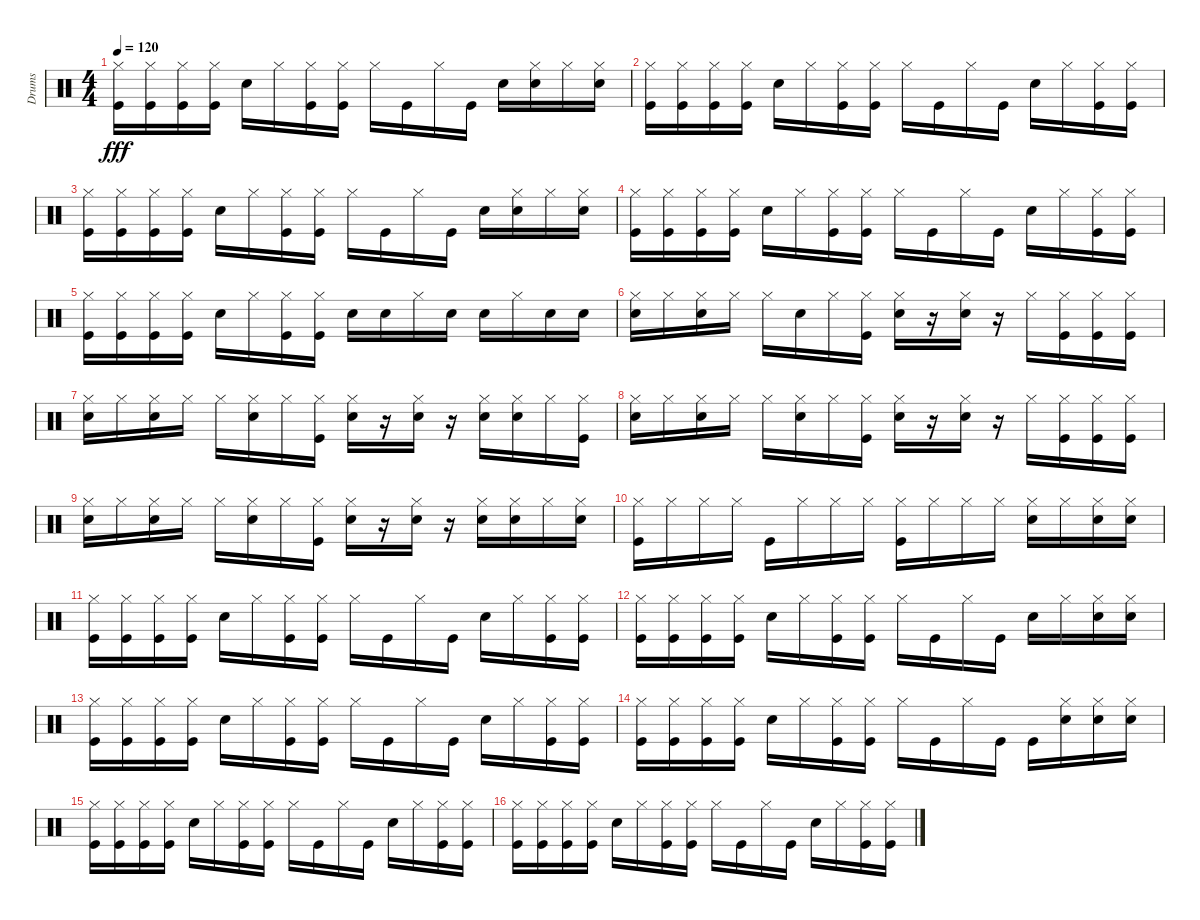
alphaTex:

\track ("Drums" "Drums") {instrument percussion}
\staff {score}
\articulation defaults
\ts (4 4)
\tempo 120
\clef neutral
\ks c
("Kick (hit)" "Hi-Hat (closed)").16{dy fff} ("Kick (hit)" "Hi-Hat (closed)").16 ("Kick (hit)" "Hi-Hat (closed)").16 ("Kick (hit)" "Hi-Hat (closed)").16 "Snare (hit) 2".16 "Hi-Hat (closed)".16 ("Kick (hit)" "Hi-Hat (closed)").16 ("Kick (hit)" "Hi-Hat (closed)").16 "Hi-Hat (closed)".16 "Kick (hit)".16 "Hi-Hat (closed)".16 "Kick (hit)".16 "Snare (hit) 2".16 ("Snare (hit) 2" "Hi-Hat (closed)").16 "Hi-Hat (closed)".16 ("Snare (hit) 2" "Hi-Hat (closed)").16 |
("Kick (hit)" "Hi-Hat (closed)").16 ("Kick (hit)" "Hi-Hat (closed)").16 ("Kick (hit)" "Hi-Hat (closed)").16 ("Kick (hit)" "Hi-Hat (closed)").16 "Snare (hit) 2".16 "Hi-Hat (closed)".16 ("Kick (hit)" "Hi-Hat (closed)").16 ("Kick (hit)" "Hi-Hat (closed)").16 "Hi-Hat (closed)".16 "Kick (hit)".16 "Hi-Hat (closed)".16 "Kick (hit)".16 "Snare (hit) 2".16 "Hi-Hat (closed)".16 ("Kick (hit)" "Hi-Hat (closed)").16 ("Kick (hit)" "Hi-Hat (closed)").16 |
("Kick (hit)" "Hi-Hat (closed)").16 ("Kick (hit)" "Hi-Hat (closed)").16 ("Kick (hit)" "Hi-Hat (closed)").16 ("Kick (hit)" "Hi-Hat (closed)").16 "Snare (hit) 2".16 "Hi-Hat (closed)".16 ("Kick (hit)" "Hi-Hat (closed)").16 ("Kick (hit)" "Hi-Hat (closed)").16 "Hi-Hat (closed)".16 "Kick (hit)".16 "Hi-Hat (closed)".16 "Kick (hit)".16 "Snare (hit) 2".16 ("Snare (hit) 2" "Hi-Hat (closed)").16 "Hi-Hat (closed)".16 ("Snare (hit) 2" "Hi-Hat (closed)").16 |
("Kick (hit)" "Hi-Hat (closed)").16 ("Kick (hit)" "Hi-Hat (closed)").16 ("Kick (hit)" "Hi-Hat (closed)").16 ("Kick (hit)" "Hi-Hat (closed)").16 "Snare (hit) 2".16 "Hi-Hat (closed)".16 ("Kick (hit)" "Hi-Hat (closed)").16 ("Kick (hit)" "Hi-Hat (closed)").16 "Hi-Hat (closed)".16 "Kick (hit)".16 "Hi-Hat (closed)".16 "Kick (hit)".16 "Snare (hit) 2".16 "Hi-Hat (closed)".16 ("Kick (hit)" "Hi-Hat (closed)").16 ("Kick (hit)" "Hi-Hat (closed)").16 |
("Kick (hit)" "Hi-Hat (closed)").16 ("Kick (hit)" "Hi-Hat (closed)").16 ("Kick (hit)" "Hi-Hat (closed)").16 ("Kick (hit)" "Hi-Hat (closed)").16 "Snare (hit) 2".16 "Hi-Hat (closed)".16 ("Kick (hit)" "Hi-Hat (closed)").16 ("Kick (hit)" "Hi-Hat (closed)").16 "Snare (hit) 2".16 "Snare (hit) 2".16 "Hi-Hat (closed)".16 "Snare (hit) 2".16 "Snare (hit) 2".16 "Hi-Hat (closed)".16 "Snare (hit) 2".16 "Snare (hit) 2".16 |
("Snare (hit) 2" "Hi-Hat (closed)").16 "Hi-Hat (closed)".16 ("Snare (hit) 2" "Hi-Hat (closed)").16 "Hi-Hat (closed)".16 "Hi-Hat (closed)".16 "Snare (hit) 2".16 "Hi-Hat (closed)".16 ("Kick (hit)" "Hi-Hat (closed)").16 ("Snare (hit) 2" "Hi-Hat (closed)").16 r.16 ("Snare (hit) 2" "Hi-Hat (closed)").16 r.16 "Hi-Hat (closed)".16 ("Kick (hit)" "Hi-Hat (closed)").16 ("Kick (hit)" "Hi-Hat (closed)").16 ("Kick (hit)" "Hi-Hat (closed)").16 |
("Snare (hit) 2" "Hi-Hat (closed)").16 "Hi-Hat (closed)".16 ("Snare (hit) 2" "Hi-Hat (closed)").16 "Hi-Hat (closed)".16 "Hi-Hat (closed)".16 ("Snare (hit) 2" "Hi-Hat (closed)").16 "Hi-Hat (closed)".16 ("Kick (hit)" "Hi-Hat (closed)").16 ("Snare (hit) 2" "Hi-Hat (closed)").16 r.16 ("Snare (hit) 2" "Hi-Hat (closed)").16 r.16 ("Snare (hit) 2" "Hi-Hat (closed)").16 ("Snare (hit) 2" "Hi-Hat (closed)").16 "Hi-Hat (closed)".16 ("Kick (hit)" "Hi-Hat (closed)").16 |
("Snare (hit) 2" "Hi-Hat (closed)").16 "Hi-Hat (closed)".16 ("Snare (hit) 2" "Hi-Hat (closed)").16 "Hi-Hat (closed)".16 "Hi-Hat (closed)".16 ("Snare (hit) 2" "Hi-Hat (closed)").16 "Hi-Hat (closed)".16 ("Kick (hit)" "Hi-Hat (closed)").16 ("Snare (hit) 2" "Hi-Hat (closed)").16 r.16 ("Snare (hit) 2" "Hi-Hat (closed)").16 r.16 "Hi-Hat (closed)".16 ("Kick (hit)" "Hi-Hat (closed)").16 ("Kick (hit)" "Hi-Hat (closed)").16 ("Kick (hit)" "Hi-Hat (closed)").16 |
("Snare (hit) 2" "Hi-Hat (closed)").16 "Hi-Hat (closed)".16 ("Snare (hit) 2" "Hi-Hat (closed)").16 "Hi-Hat (closed)".16 "Hi-Hat (closed)".16 ("Snare (hit) 2" "Hi-Hat (closed)").16 "Hi-Hat (closed)".16 ("Kick (hit)" "Hi-Hat (closed)").16 ("Snare (hit) 2" "Hi-Hat (closed)").16 r.16 ("Snare (hit) 2" "Hi-Hat (closed)").16 r.16 ("Snare (hit) 2" "Hi-Hat (closed)").16 ("Snare (hit) 2" "Hi-Hat (closed)").16 "Hi-Hat (closed)".16 ("Snare (hit) 2" "Hi-Hat (closed)").16 |
("Kick (hit)" "Hi-Hat (closed)").16 "Hi-Hat (closed)".16 "Hi-Hat (closed)".16 "Hi-Hat (closed)".16 "Kick (hit)".16 "Hi-Hat (closed)".16 "Hi-Hat (closed)".16 "Hi-Hat (closed)".16 ("Kick (hit)" "Hi-Hat (closed)").16 "Hi-Hat (closed)".16 "Hi-Hat (closed)".16 "Hi-Hat (closed)".16 ("Snare (hit) 2" "Hi-Hat (closed)").16 "Hi-Hat (closed)".16 ("Snare (hit) 2" "Hi-Hat (closed)").16 ("Snare (hit) 2" "Hi-Hat (closed)").16 |
("Kick (hit)" "Hi-Hat (closed)").16 ("Kick (hit)" "Hi-Hat (closed)").16 ("Kick (hit)" "Hi-Hat (closed)").16 ("Kick (hit)" "Hi-Hat (closed)").16 "Snare (hit) 2".16 "Hi-Hat (closed)".16 ("Kick (hit)" "Hi-Hat (closed)").16 ("Kick (hit)" "Hi-Hat (closed)").16 "Hi-Hat (closed)".16 "Kick (hit)".16 "Hi-Hat (closed)".16 "Kick (hit)".16 "Snare (hit) 2".16 "Hi-Hat (closed)".16 ("Kick (hit)" "Hi-Hat (closed)").16 ("Kick (hit)" "Hi-Hat (closed)").16 |
("Kick (hit)" "Hi-Hat (closed)").16 ("Kick (hit)" "Hi-Hat (closed)").16 ("Kick (hit)" "Hi-Hat (closed)").16 ("Kick (hit)" "Hi-Hat (closed)").16 "Snare (hit) 2".16 "Hi-Hat (closed)".16 ("Kick (hit)" "Hi-Hat (closed)").16 ("Kick (hit)" "Hi-Hat (closed)").16 "Hi-Hat (closed)".16 "Kick (hit)".16 "Hi-Hat (closed)".16 "Kick (hit)".16 "Snare (hit) 2".16 "Hi-Hat (closed)".16 ("Snare (hit) 2" "Hi-Hat (closed)").16 ("Snare (hit) 2" "Hi-Hat (closed)").16 |
("Kick (hit)" "Hi-Hat (closed)").16 ("Kick (hit)" "Hi-Hat (closed)").16 ("Kick (hit)" "Hi-Hat (closed)").16 ("Kick (hit)" "Hi-Hat (closed)").16 "Snare (hit) 2".16 "Hi-Hat (closed)".16 ("Kick (hit)" "Hi-Hat (closed)").16 ("Kick (hit)" "Hi-Hat (closed)").16 "Hi-Hat (closed)".16 "Kick (hit)".16 "Hi-Hat (closed)".16 "Kick (hit)".16 "Snare (hit) 2".16 "Hi-Hat (closed)".16 ("Kick (hit)" "Hi-Hat (closed)").16 ("Kick (hit)" "Hi-Hat (closed)").16 |
("Kick (hit)" "Hi-Hat (closed)").16 ("Kick (hit)" "Hi-Hat (closed)").16 ("Kick (hit)" "Hi-Hat (closed)").16 ("Kick (hit)" "Hi-Hat (closed)").16 "Snare (hit) 2".16 "Hi-Hat (closed)".16 ("Kick (hit)" "Hi-Hat (closed)").16 ("Kick (hit)" "Hi-Hat (closed)").16 "Hi-Hat (closed)".16 "Kick (hit)".16 "Hi-Hat (closed)".16 "Kick (hit)".16 "Kick (hit)".16 ("Snare (hit) 2" "Hi-Hat (closed)").16 ("Snare (hit) 2" "Hi-Hat (closed)").16 ("Snare (hit) 2" "Hi-Hat (closed)").16 |
("Kick (hit)" "Hi-Hat (closed)").16 ("Kick (hit)" "Hi-Hat (closed)").16 ("Kick (hit)" "Hi-Hat (closed)").16 ("Kick (hit)" "Hi-Hat (closed)").16 "Snare (hit) 2".16 "Hi-Hat (closed)".16 ("Kick (hit)" "Hi-Hat (closed)").16 ("Kick (hit)" "Hi-Hat (closed)").16 "Hi-Hat (closed)".16 "Kick (hit)".16 "Hi-Hat (closed)".16 "Kick (hit)".16 "Snare (hit) 2".16 "Hi-Hat (closed)".16 ("Kick (hit)" "Hi-Hat (closed)").16 ("Kick (hit)" "Hi-Hat (closed)").16 |
("Kick (hit)" "Hi-Hat (closed)").16 ("Kick (hit)" "Hi-Hat (closed)").16 ("Kick (hit)" "Hi-Hat (closed)").16 ("Kick (hit)" "Hi-Hat (closed)").16 "Snare (hit) 2".16 "Hi-Hat (closed)".16 ("Kick (hit)" "Hi-Hat (closed)").16 ("Kick (hit)" "Hi-Hat (closed)").16 "Hi-Hat (closed)".16 "Kick (hit)".16 "Hi-Hat (closed)".16 "Kick (hit)".16 "Snare (hit) 2".16 "Hi-Hat (closed)".16 ("Kick (hit)" "Hi-Hat (closed)").16 ("Kick (hit)" "Hi-Hat (closed)").16
